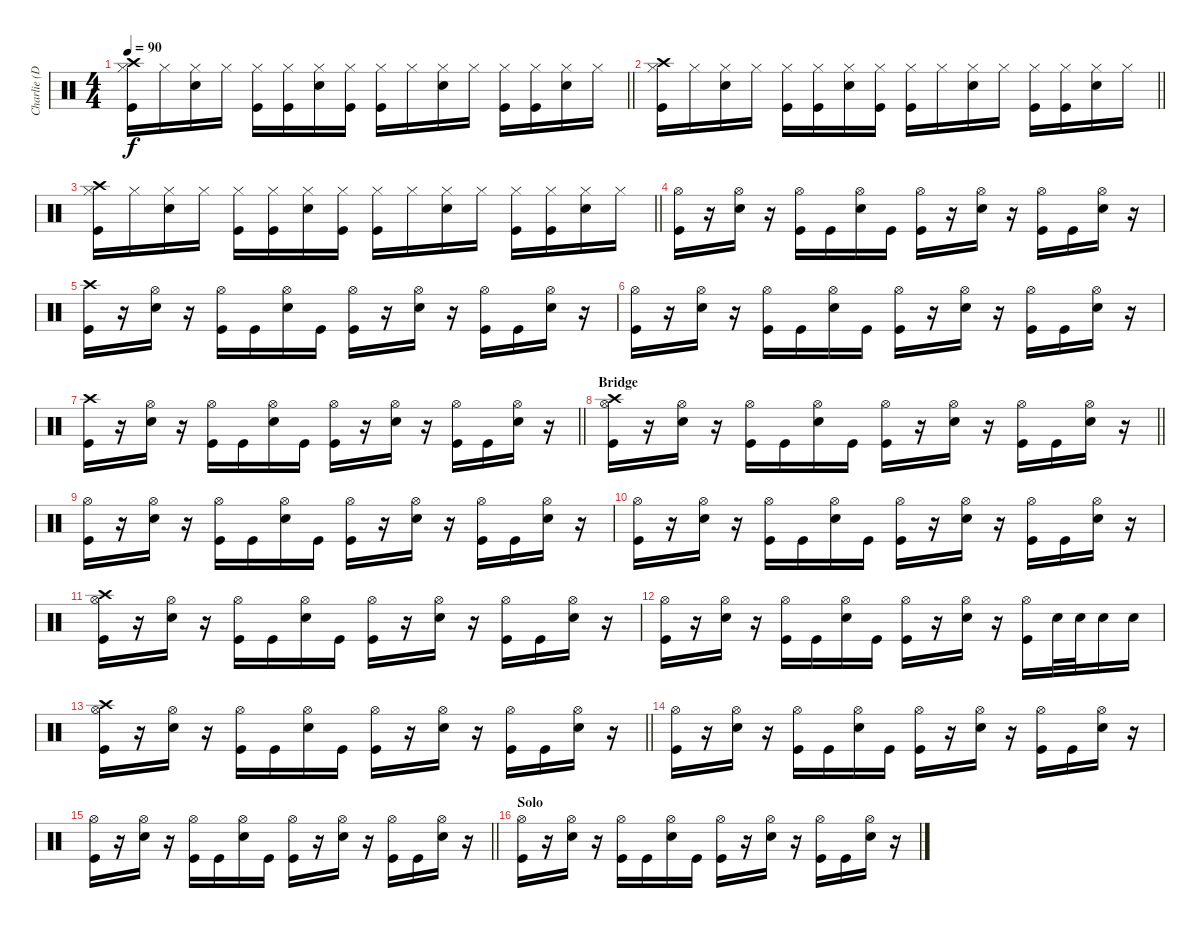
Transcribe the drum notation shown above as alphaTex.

\track ("Charlie (Drums)" "Charlie (D") {instrument percussion}
\staff {score}
\articulation defaults
\ts (4 4)
\tempo 90
\clef neutral
\barLineRight lightlight
\ks c
("Crash high (hit)" "Hi-Hat (closed)" "Kick (hit)").16{dy f} "Hi-Hat (closed)".16 ("Hi-Hat (closed)" "Electric Snare (hit)").16 "Hi-Hat (closed)".16 ("Hi-Hat (closed)" "Kick (hit)").16 ("Hi-Hat (closed)" "Kick (hit)").16 ("Hi-Hat (closed)" "Electric Snare (hit)").16 ("Hi-Hat (closed)" "Kick (hit)").16 ("Hi-Hat (closed)" "Kick (hit)").16 "Hi-Hat (closed)".16 ("Hi-Hat (closed)" "Electric Snare (hit)").16 "Hi-Hat (closed)".16 ("Hi-Hat (closed)" "Kick (hit)").16 ("Hi-Hat (closed)" "Kick (hit)").16 ("Hi-Hat (closed)" "Electric Snare (hit)").16 "Hi-Hat (closed)".16 |
\barLineRight lightlight
("Crash high (hit)" "Hi-Hat (closed)" "Kick (hit)").16 "Hi-Hat (closed)".16 ("Hi-Hat (closed)" "Electric Snare (hit)").16 "Hi-Hat (closed)".16 ("Hi-Hat (closed)" "Kick (hit)").16 ("Hi-Hat (closed)" "Kick (hit)").16 ("Hi-Hat (closed)" "Electric Snare (hit)").16 ("Hi-Hat (closed)" "Kick (hit)").16 ("Hi-Hat (closed)" "Kick (hit)").16 "Hi-Hat (closed)".16 ("Hi-Hat (closed)" "Electric Snare (hit)").16 "Hi-Hat (closed)".16 ("Hi-Hat (closed)" "Kick (hit)").16 ("Hi-Hat (closed)" "Kick (hit)").16 ("Hi-Hat (closed)" "Electric Snare (hit)").16 "Hi-Hat (closed)".16 |
\barLineRight lightlight
("Crash high (hit)" "Hi-Hat (closed)" "Kick (hit)").16 "Hi-Hat (closed)".16 ("Hi-Hat (closed)" "Electric Snare (hit)").16 "Hi-Hat (closed)".16 ("Hi-Hat (closed)" "Kick (hit)").16 ("Hi-Hat (closed)" "Kick (hit)").16 ("Hi-Hat (closed)" "Electric Snare (hit)").16 ("Hi-Hat (closed)" "Kick (hit)").16 ("Hi-Hat (closed)" "Kick (hit)").16 "Hi-Hat (closed)".16 ("Hi-Hat (closed)" "Electric Snare (hit)").16 "Hi-Hat (closed)".16 ("Hi-Hat (closed)" "Kick (hit)").16 ("Hi-Hat (closed)" "Kick (hit)").16 ("Hi-Hat (closed)" "Electric Snare (hit)").16 "Hi-Hat (closed)".16 |
("Hi-Hat (open)" "Kick (hit)").16 r.16 ("Hi-Hat (open)" "Electric Snare (hit)").16 r.16 ("Hi-Hat (open)" "Kick (hit)").16 "Kick (hit)".16 ("Hi-Hat (open)" "Electric Snare (hit)").16 "Kick (hit)".16 ("Hi-Hat (open)" "Kick (hit)").16 r.16 ("Hi-Hat (open)" "Electric Snare (hit)").16 r.16 ("Hi-Hat (open)" "Kick (hit)").16 "Kick (hit)".16 ("Hi-Hat (open)" "Electric Snare (hit)").16 r.16 |
("Crash high (hit)" "Kick (hit)").16 r.16 ("Hi-Hat (open)" "Electric Snare (hit)").16 r.16 ("Hi-Hat (open)" "Kick (hit)").16 "Kick (hit)".16 ("Hi-Hat (open)" "Electric Snare (hit)").16 "Kick (hit)".16 ("Hi-Hat (open)" "Kick (hit)").16 r.16 ("Hi-Hat (open)" "Electric Snare (hit)").16 r.16 ("Hi-Hat (open)" "Kick (hit)").16 "Kick (hit)".16 ("Hi-Hat (open)" "Electric Snare (hit)").16 r.16 |
("Hi-Hat (open)" "Kick (hit)").16 r.16 ("Hi-Hat (open)" "Electric Snare (hit)").16 r.16 ("Hi-Hat (open)" "Kick (hit)").16 "Kick (hit)".16 ("Hi-Hat (open)" "Electric Snare (hit)").16 "Kick (hit)".16 ("Hi-Hat (open)" "Kick (hit)").16 r.16 ("Hi-Hat (open)" "Electric Snare (hit)").16 r.16 ("Hi-Hat (open)" "Kick (hit)").16 "Kick (hit)".16 ("Hi-Hat (open)" "Electric Snare (hit)").16 r.16 |
\barLineRight lightlight
("Crash high (hit)" "Kick (hit)").16 r.16 ("Hi-Hat (open)" "Electric Snare (hit)").16 r.16 ("Hi-Hat (open)" "Kick (hit)").16 "Kick (hit)".16 ("Hi-Hat (open)" "Electric Snare (hit)").16 "Kick (hit)".16 ("Hi-Hat (open)" "Kick (hit)").16 r.16 ("Hi-Hat (open)" "Electric Snare (hit)").16 r.16 ("Hi-Hat (open)" "Kick (hit)").16 "Kick (hit)".16 ("Hi-Hat (open)" "Electric Snare (hit)").16 r.16 |
\section ("" "Bridge")
\barLineRight lightlight
("Crash high (hit)" "Hi-Hat (open)" "Kick (hit)").16 r.16 ("Hi-Hat (open)" "Electric Snare (hit)").16 r.16 ("Hi-Hat (open)" "Kick (hit)").16 "Kick (hit)".16 ("Hi-Hat (open)" "Electric Snare (hit)").16 "Kick (hit)".16 ("Hi-Hat (open)" "Kick (hit)").16 r.16 ("Hi-Hat (open)" "Electric Snare (hit)").16 r.16 ("Hi-Hat (open)" "Kick (hit)").16 "Kick (hit)".16 ("Hi-Hat (open)" "Electric Snare (hit)").16 r.16 |
("Hi-Hat (open)" "Kick (hit)").16 r.16 ("Hi-Hat (open)" "Electric Snare (hit)").16 r.16 ("Hi-Hat (open)" "Kick (hit)").16 "Kick (hit)".16 ("Hi-Hat (open)" "Electric Snare (hit)").16 "Kick (hit)".16 ("Hi-Hat (open)" "Kick (hit)").16 r.16 ("Hi-Hat (open)" "Electric Snare (hit)").16 r.16 ("Hi-Hat (open)" "Kick (hit)").16 "Kick (hit)".16 ("Hi-Hat (open)" "Electric Snare (hit)").16 r.16 |
("Hi-Hat (open)" "Kick (hit)").16 r.16 ("Hi-Hat (open)" "Electric Snare (hit)").16 r.16 ("Hi-Hat (open)" "Kick (hit)").16 "Kick (hit)".16 ("Hi-Hat (open)" "Electric Snare (hit)").16 "Kick (hit)".16 ("Hi-Hat (open)" "Kick (hit)").16 r.16 ("Hi-Hat (open)" "Electric Snare (hit)").16 r.16 ("Hi-Hat (open)" "Kick (hit)").16 "Kick (hit)".16 ("Hi-Hat (open)" "Electric Snare (hit)").16 r.16 |
("Crash high (hit)" "Hi-Hat (open)" "Kick (hit)").16 r.16 ("Hi-Hat (open)" "Electric Snare (hit)").16 r.16 ("Hi-Hat (open)" "Kick (hit)").16 "Kick (hit)".16 ("Hi-Hat (open)" "Electric Snare (hit)").16 "Kick (hit)".16 ("Hi-Hat (open)" "Kick (hit)").16 r.16 ("Hi-Hat (open)" "Electric Snare (hit)").16 r.16 ("Hi-Hat (open)" "Kick (hit)").16 "Kick (hit)".16 ("Hi-Hat (open)" "Electric Snare (hit)").16 r.16 |
("Hi-Hat (open)" "Kick (hit)").16 r.16 ("Hi-Hat (open)" "Electric Snare (hit)").16 r.16 ("Hi-Hat (open)" "Kick (hit)").16 "Kick (hit)".16 ("Hi-Hat (open)" "Electric Snare (hit)").16 "Kick (hit)".16 ("Hi-Hat (open)" "Kick (hit)").16 r.16 ("Hi-Hat (open)" "Electric Snare (hit)").16 r.16 ("Hi-Hat (open)" "Kick (hit)").16 "Electric Snare (hit)".32 "Electric Snare (hit)".32 "Electric Snare (hit)".16 "Electric Snare (hit)".16 |
\barLineRight lightlight
("Crash high (hit)" "Hi-Hat (open)" "Kick (hit)").16 r.16 ("Hi-Hat (open)" "Electric Snare (hit)").16 r.16 ("Hi-Hat (open)" "Kick (hit)").16 "Kick (hit)".16 ("Hi-Hat (open)" "Electric Snare (hit)").16 "Kick (hit)".16 ("Hi-Hat (open)" "Kick (hit)").16 r.16 ("Hi-Hat (open)" "Electric Snare (hit)").16 r.16 ("Hi-Hat (open)" "Kick (hit)").16 "Kick (hit)".16 ("Hi-Hat (open)" "Electric Snare (hit)").16 r.16 |
("Hi-Hat (open)" "Kick (hit)").16 r.16 ("Hi-Hat (open)" "Electric Snare (hit)").16 r.16 ("Hi-Hat (open)" "Kick (hit)").16 "Kick (hit)".16 ("Hi-Hat (open)" "Electric Snare (hit)").16 "Kick (hit)".16 ("Hi-Hat (open)" "Kick (hit)").16 r.16 ("Hi-Hat (open)" "Electric Snare (hit)").16 r.16 ("Hi-Hat (open)" "Kick (hit)").16 "Kick (hit)".16 ("Hi-Hat (open)" "Electric Snare (hit)").16 r.16 |
\barLineRight lightlight
("Hi-Hat (open)" "Kick (hit)").16 r.16 ("Hi-Hat (open)" "Electric Snare (hit)").16 r.16 ("Hi-Hat (open)" "Kick (hit)").16 "Kick (hit)".16 ("Hi-Hat (open)" "Electric Snare (hit)").16 "Kick (hit)".16 ("Hi-Hat (open)" "Kick (hit)").16 r.16 ("Hi-Hat (open)" "Electric Snare (hit)").16 r.16 ("Hi-Hat (open)" "Kick (hit)").16 "Kick (hit)".16 ("Hi-Hat (open)" "Electric Snare (hit)").16 r.16 |
\section ("" "Solo")
("Hi-Hat (open)" "Kick (hit)").16 r.16 ("Hi-Hat (open)" "Electric Snare (hit)").16 r.16 ("Hi-Hat (open)" "Kick (hit)").16 "Kick (hit)".16 ("Hi-Hat (open)" "Electric Snare (hit)").16 "Kick (hit)".16 ("Hi-Hat (open)" "Kick (hit)").16 r.16 ("Hi-Hat (open)" "Electric Snare (hit)").16 r.16 ("Hi-Hat (open)" "Kick (hit)").16 "Kick (hit)".16 ("Hi-Hat (open)" "Electric Snare (hit)").16 r.16
